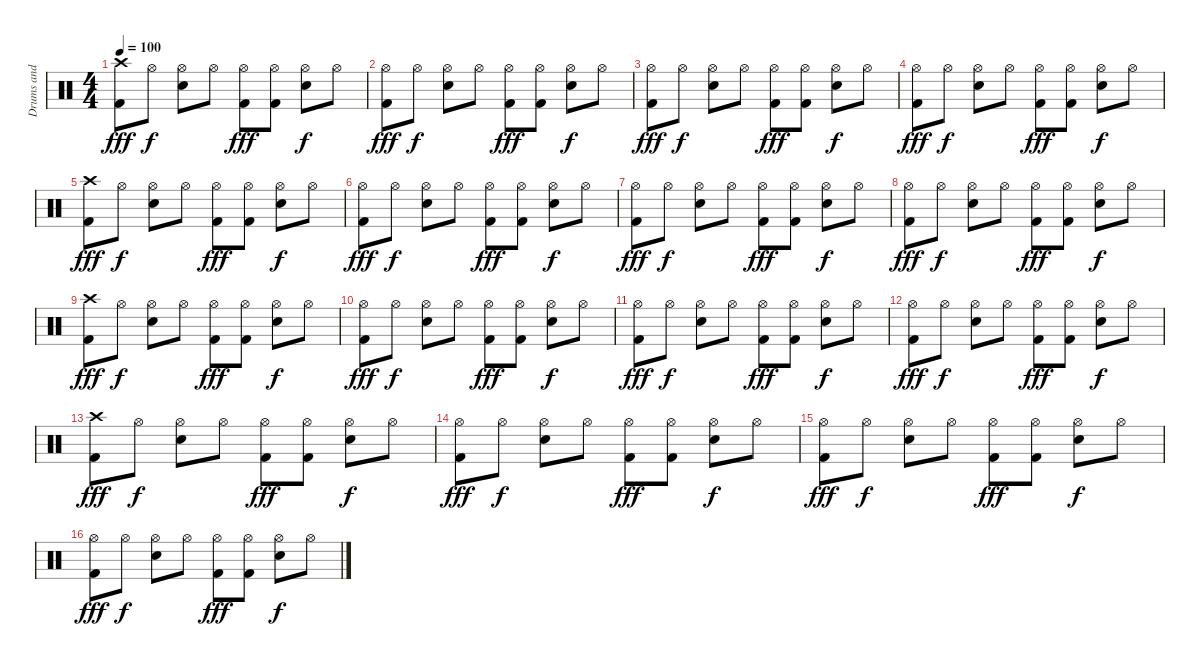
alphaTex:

\track ("Drums and Percussion" "Drums and ") {instrument percussion}
\staff {score}
\articulation defaults
\ts (4 4)
\tempo 100
\clef neutral
\ks c
("Crash high (hit)" "Kick (hit) 2").8{dy fff} "Hi-Hat (open)".8{dy f} ("Hi-Hat (open)" "Snare (hit) 2").8 "Hi-Hat (open)".8 ("Hi-Hat (open)" "Kick (hit) 2").8{dy fff} ("Hi-Hat (open)" "Kick (hit) 2").8 ("Hi-Hat (open)" "Snare (hit) 2").8{dy f} "Hi-Hat (open)".8 |
("Hi-Hat (open)" "Kick (hit) 2").8{dy fff} "Hi-Hat (open)".8{dy f} ("Hi-Hat (open)" "Snare (hit) 2").8 "Hi-Hat (open)".8 ("Hi-Hat (open)" "Kick (hit) 2").8{dy fff} ("Hi-Hat (open)" "Kick (hit) 2").8 ("Hi-Hat (open)" "Snare (hit) 2").8{dy f} "Hi-Hat (open)".8 |
("Hi-Hat (open)" "Kick (hit) 2").8{dy fff} "Hi-Hat (open)".8{dy f} ("Hi-Hat (open)" "Snare (hit) 2").8 "Hi-Hat (open)".8 ("Hi-Hat (open)" "Kick (hit) 2").8{dy fff} ("Hi-Hat (open)" "Kick (hit) 2").8 ("Hi-Hat (open)" "Snare (hit) 2").8{dy f} "Hi-Hat (open)".8 |
("Hi-Hat (open)" "Kick (hit) 2").8{dy fff} "Hi-Hat (open)".8{dy f} ("Hi-Hat (open)" "Snare (hit) 2").8 "Hi-Hat (open)".8 ("Hi-Hat (open)" "Kick (hit) 2").8{dy fff} ("Hi-Hat (open)" "Kick (hit) 2").8 ("Hi-Hat (open)" "Snare (hit) 2").8{dy f} "Hi-Hat (open)".8 |
("Crash high (hit)" "Kick (hit) 2").8{dy fff} "Hi-Hat (open)".8{dy f} ("Hi-Hat (open)" "Snare (hit) 2").8 "Hi-Hat (open)".8 ("Hi-Hat (open)" "Kick (hit) 2").8{dy fff} ("Hi-Hat (open)" "Kick (hit) 2").8 ("Hi-Hat (open)" "Snare (hit) 2").8{dy f} "Hi-Hat (open)".8 |
("Hi-Hat (open)" "Kick (hit) 2").8{dy fff} "Hi-Hat (open)".8{dy f} ("Hi-Hat (open)" "Snare (hit) 2").8 "Hi-Hat (open)".8 ("Hi-Hat (open)" "Kick (hit) 2").8{dy fff} ("Hi-Hat (open)" "Kick (hit) 2").8 ("Hi-Hat (open)" "Snare (hit) 2").8{dy f} "Hi-Hat (open)".8 |
("Hi-Hat (open)" "Kick (hit) 2").8{dy fff} "Hi-Hat (open)".8{dy f} ("Hi-Hat (open)" "Snare (hit) 2").8 "Hi-Hat (open)".8 ("Hi-Hat (open)" "Kick (hit) 2").8{dy fff} ("Hi-Hat (open)" "Kick (hit) 2").8 ("Hi-Hat (open)" "Snare (hit) 2").8{dy f} "Hi-Hat (open)".8 |
("Hi-Hat (open)" "Kick (hit) 2").8{dy fff} "Hi-Hat (open)".8{dy f} ("Hi-Hat (open)" "Snare (hit) 2").8 "Hi-Hat (open)".8 ("Hi-Hat (open)" "Kick (hit) 2").8{dy fff} ("Hi-Hat (open)" "Kick (hit) 2").8 ("Hi-Hat (open)" "Snare (hit) 2").8{dy f} "Hi-Hat (open)".8 |
("Crash high (hit)" "Kick (hit) 2").8{dy fff} "Hi-Hat (open)".8{dy f} ("Hi-Hat (open)" "Snare (hit) 2").8 "Hi-Hat (open)".8 ("Hi-Hat (open)" "Kick (hit) 2").8{dy fff} ("Hi-Hat (open)" "Kick (hit) 2").8 ("Hi-Hat (open)" "Snare (hit) 2").8{dy f} "Hi-Hat (open)".8 |
("Hi-Hat (open)" "Kick (hit) 2").8{dy fff} "Hi-Hat (open)".8{dy f} ("Hi-Hat (open)" "Snare (hit) 2").8 "Hi-Hat (open)".8 ("Hi-Hat (open)" "Kick (hit) 2").8{dy fff} ("Hi-Hat (open)" "Kick (hit) 2").8 ("Hi-Hat (open)" "Snare (hit) 2").8{dy f} "Hi-Hat (open)".8 |
("Hi-Hat (open)" "Kick (hit) 2").8{dy fff} "Hi-Hat (open)".8{dy f} ("Hi-Hat (open)" "Snare (hit) 2").8 "Hi-Hat (open)".8 ("Hi-Hat (open)" "Kick (hit) 2").8{dy fff} ("Hi-Hat (open)" "Kick (hit) 2").8 ("Hi-Hat (open)" "Snare (hit) 2").8{dy f} "Hi-Hat (open)".8 |
("Hi-Hat (open)" "Kick (hit) 2").8{dy fff} "Hi-Hat (open)".8{dy f} ("Hi-Hat (open)" "Snare (hit) 2").8 "Hi-Hat (open)".8 ("Hi-Hat (open)" "Kick (hit) 2").8{dy fff} ("Hi-Hat (open)" "Kick (hit) 2").8 ("Hi-Hat (open)" "Snare (hit) 2").8{dy f} "Hi-Hat (open)".8 |
("Crash high (hit)" "Kick (hit) 2").8{dy fff} "Hi-Hat (open)".8{dy f} ("Hi-Hat (open)" "Snare (hit) 2").8 "Hi-Hat (open)".8 ("Hi-Hat (open)" "Kick (hit) 2").8{dy fff} ("Hi-Hat (open)" "Kick (hit) 2").8 ("Hi-Hat (open)" "Snare (hit) 2").8{dy f} "Hi-Hat (open)".8 |
("Hi-Hat (open)" "Kick (hit) 2").8{dy fff} "Hi-Hat (open)".8{dy f} ("Hi-Hat (open)" "Snare (hit) 2").8 "Hi-Hat (open)".8 ("Hi-Hat (open)" "Kick (hit) 2").8{dy fff} ("Hi-Hat (open)" "Kick (hit) 2").8 ("Hi-Hat (open)" "Snare (hit) 2").8{dy f} "Hi-Hat (open)".8 |
("Hi-Hat (open)" "Kick (hit) 2").8{dy fff} "Hi-Hat (open)".8{dy f} ("Hi-Hat (open)" "Snare (hit) 2").8 "Hi-Hat (open)".8 ("Hi-Hat (open)" "Kick (hit) 2").8{dy fff} ("Hi-Hat (open)" "Kick (hit) 2").8 ("Hi-Hat (open)" "Snare (hit) 2").8{dy f} "Hi-Hat (open)".8 |
("Hi-Hat (open)" "Kick (hit) 2").8{dy fff} "Hi-Hat (open)".8{dy f} ("Hi-Hat (open)" "Snare (hit) 2").8 "Hi-Hat (open)".8 ("Hi-Hat (open)" "Kick (hit) 2").8{dy fff} ("Hi-Hat (open)" "Kick (hit) 2").8 ("Hi-Hat (open)" "Snare (hit) 2").8{dy f} "Hi-Hat (open)".8
